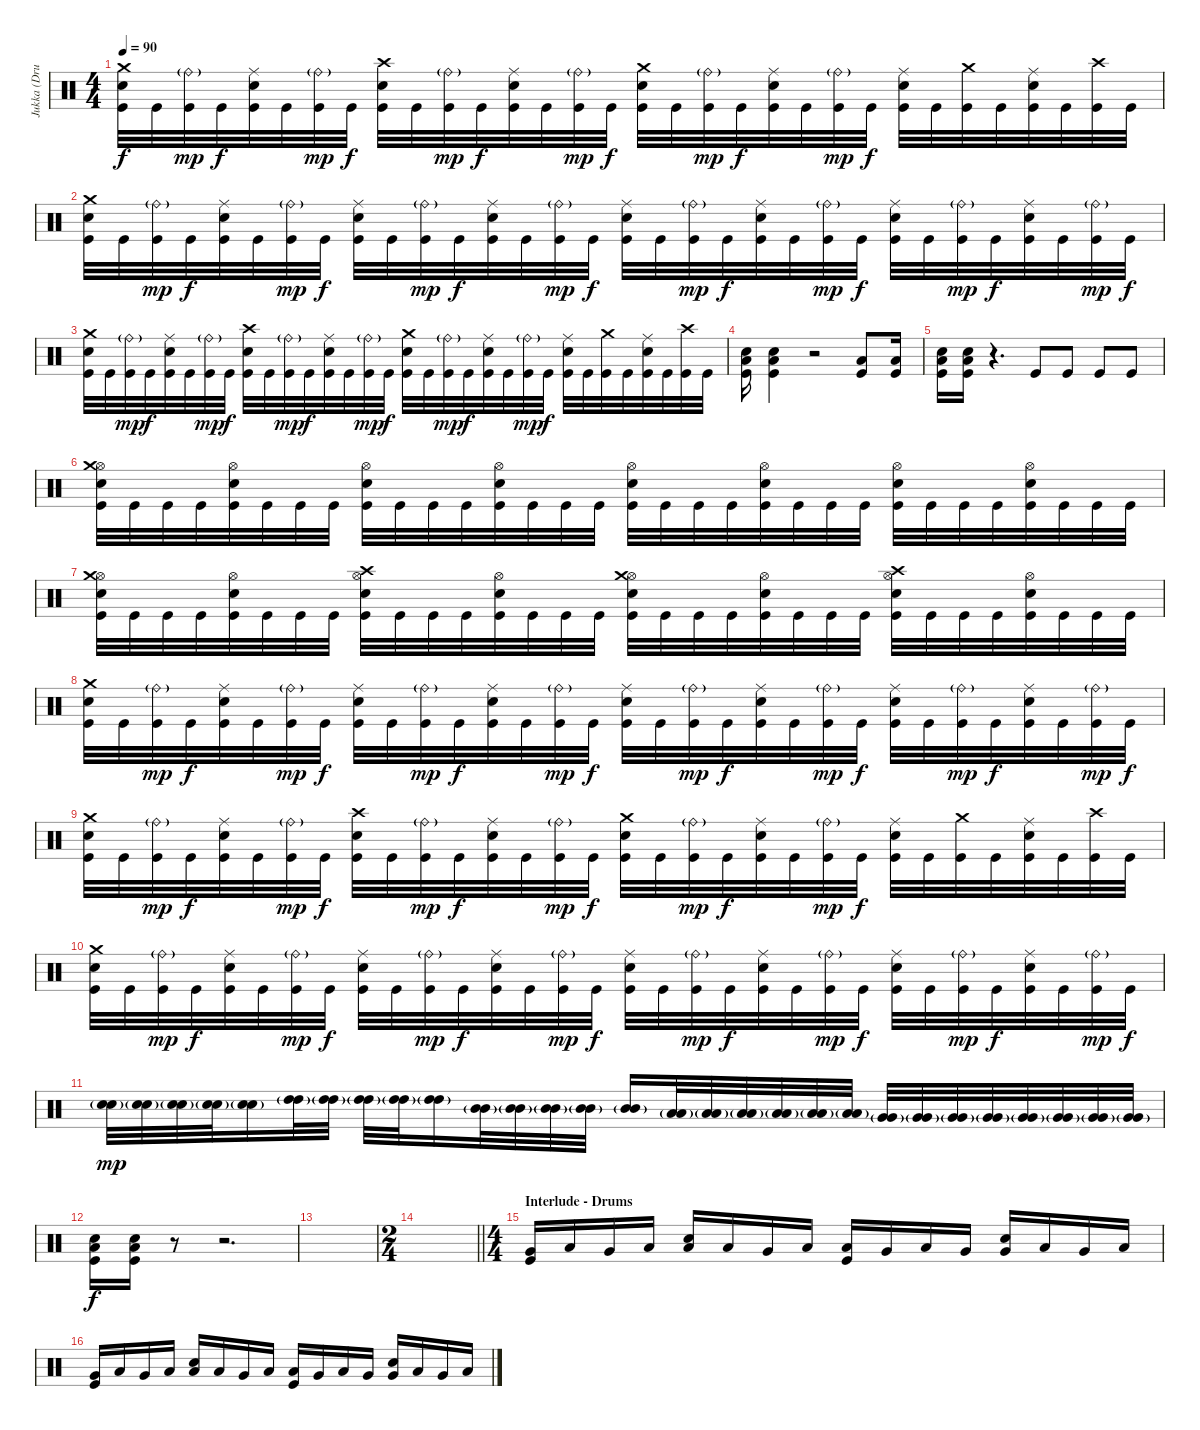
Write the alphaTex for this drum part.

\track ("Jukka (Drums)" "Jukka (Dru") {instrument percussion}
\staff {score}
\articulation defaults
\ts (4 4)
\tempo 90
\clef neutral
\ks c
("Crash medium (hit)" "Snare (hit) 2" "Kick (hit)").32{dy f} "Kick (hit)".32 ("Ride (bell)"{g} "Kick (hit)").32{dy mp} "Kick (hit)".32{dy f} ("Ride (middle)" "Snare (hit) 2" "Kick (hit)").32 "Kick (hit)".32 ("Ride (bell)"{g} "Kick (hit)").32{dy mp} "Kick (hit)".32{dy f} ("Crash high (hit)" "Snare (hit) 2" "Kick (hit)").32 "Kick (hit)".32 ("Ride (bell)"{g} "Kick (hit)").32{dy mp} "Kick (hit)".32{dy f} ("Ride (middle)" "Snare (hit) 2" "Kick (hit)").32 "Kick (hit)".32 ("Ride (bell)"{g} "Kick (hit)").32{dy mp} "Kick (hit)".32{dy f} ("Crash medium (hit)" "Snare (hit) 2" "Kick (hit)").32 "Kick (hit)".32 ("Ride (bell)"{g} "Kick (hit)").32{dy mp} "Kick (hit)".32{dy f} ("Ride (middle)" "Snare (hit) 2" "Kick (hit)").32 "Kick (hit)".32 ("Ride (bell)"{g} "Kick (hit)").32{dy mp} "Kick (hit)".32{dy f} ("Ride (middle)" "Snare (hit) 2" "Kick (hit)").32 "Kick (hit)".32 ("Crash medium (hit)" "Kick (hit)").32 "Kick (hit)".32 ("Ride (middle)" "Snare (hit) 2" "Kick (hit)").32 "Kick (hit)".32 ("Crash high (hit)" "Kick (hit)").32 "Kick (hit)".32 |
("Crash medium (hit)" "Snare (hit) 2" "Kick (hit)").32 "Kick (hit)".32 ("Ride (bell)"{g} "Kick (hit)").32{dy mp} "Kick (hit)".32{dy f} ("Ride (middle)" "Snare (hit) 2" "Kick (hit)").32 "Kick (hit)".32 ("Ride (bell)"{g} "Kick (hit)").32{dy mp} "Kick (hit)".32{dy f} ("Ride (middle)" "Snare (hit) 2" "Kick (hit)").32 "Kick (hit)".32 ("Ride (bell)"{g} "Kick (hit)").32{dy mp} "Kick (hit)".32{dy f} ("Ride (middle)" "Snare (hit) 2" "Kick (hit)").32 "Kick (hit)".32 ("Ride (bell)"{g} "Kick (hit)").32{dy mp} "Kick (hit)".32{dy f} ("Ride (middle)" "Snare (hit) 2" "Kick (hit)").32 "Kick (hit)".32 ("Ride (bell)"{g} "Kick (hit)").32{dy mp} "Kick (hit)".32{dy f} ("Ride (middle)" "Snare (hit) 2" "Kick (hit)").32 "Kick (hit)".32 ("Ride (bell)"{g} "Kick (hit)").32{dy mp} "Kick (hit)".32{dy f} ("Ride (middle)" "Snare (hit) 2" "Kick (hit)").32 "Kick (hit)".32 ("Ride (bell)"{g} "Kick (hit)").32{dy mp} "Kick (hit)".32{dy f} ("Ride (middle)" "Snare (hit) 2" "Kick (hit)").32 "Kick (hit)".32 ("Ride (bell)"{g} "Kick (hit)").32{dy mp} "Kick (hit)".32{dy f} |
("Crash medium (hit)" "Snare (hit) 2" "Kick (hit)").32 "Kick (hit)".32 ("Ride (bell)"{g} "Kick (hit)").32{dy mp} "Kick (hit)".32{dy f} ("Ride (middle)" "Snare (hit) 2" "Kick (hit)").32 "Kick (hit)".32 ("Ride (bell)"{g} "Kick (hit)").32{dy mp} "Kick (hit)".32{dy f} ("Crash high (hit)" "Snare (hit) 2" "Kick (hit)").32 "Kick (hit)".32 ("Ride (bell)"{g} "Kick (hit)").32{dy mp} "Kick (hit)".32{dy f} ("Ride (middle)" "Snare (hit) 2" "Kick (hit)").32 "Kick (hit)".32 ("Ride (bell)"{g} "Kick (hit)").32{dy mp} "Kick (hit)".32{dy f} ("Crash medium (hit)" "Snare (hit) 2" "Kick (hit)").32 "Kick (hit)".32 ("Ride (bell)"{g} "Kick (hit)").32{dy mp} "Kick (hit)".32{dy f} ("Ride (middle)" "Snare (hit) 2" "Kick (hit)").32 "Kick (hit)".32 ("Ride (bell)"{g} "Kick (hit)").32{dy mp} "Kick (hit)".32{dy f} ("Ride (middle)" "Snare (hit) 2" "Kick (hit)").32 "Kick (hit)".32 ("Crash medium (hit)" "Kick (hit)").32 "Kick (hit)".32 ("Ride (middle)" "Snare (hit) 2" "Kick (hit)").32 "Kick (hit)".32 ("Crash high (hit)" "Kick (hit)").32 "Kick (hit)".32 |
("Snare (hit) 2" "Low Floor Tom (hit)" "Kick (hit)").16{volume 12} ("Snare (hit) 2" "Low Floor Tom (hit)" "Kick (hit)").4 r.2 ("Low Floor Tom (hit)" "Kick (hit)").8 ("Low Floor Tom (hit)" "Kick (hit)").16 |
("Snare (hit) 2" "Low Floor Tom (hit)" "Kick (hit)").16 ("Snare (hit) 2" "Low Floor Tom (hit)" "Kick (hit)").16 r.4{d} "Kick (hit)".8{volume 16} "Kick (hit)".8 "Kick (hit)".8 "Kick (hit)".8 |
("Hi-Hat (open)" "Crash medium (hit)" "Snare (hit) 2" "Kick (hit)").32 "Kick (hit)".32 "Kick (hit)".32 "Kick (hit)".32 ("Hi-Hat (open)" "Snare (hit) 2" "Kick (hit)").32 "Kick (hit)".32 "Kick (hit)".32 "Kick (hit)".32 ("Hi-Hat (open)" "Snare (hit) 2" "Kick (hit)").32 "Kick (hit)".32 "Kick (hit)".32 "Kick (hit)".32 ("Hi-Hat (open)" "Snare (hit) 2" "Kick (hit)").32 "Kick (hit)".32 "Kick (hit)".32 "Kick (hit)".32 ("Hi-Hat (open)" "Snare (hit) 2" "Kick (hit)").32 "Kick (hit)".32 "Kick (hit)".32 "Kick (hit)".32 ("Hi-Hat (open)" "Snare (hit) 2" "Kick (hit)").32 "Kick (hit)".32 "Kick (hit)".32 "Kick (hit)".32 ("Hi-Hat (open)" "Snare (hit) 2" "Kick (hit)").32 "Kick (hit)".32 "Kick (hit)".32 "Kick (hit)".32 ("Hi-Hat (open)" "Snare (hit) 2" "Kick (hit)").32 "Kick (hit)".32 "Kick (hit)".32 "Kick (hit)".32 |
("Hi-Hat (open)" "Crash medium (hit)" "Snare (hit) 2" "Kick (hit)").32 "Kick (hit)".32 "Kick (hit)".32 "Kick (hit)".32 ("Hi-Hat (open)" "Snare (hit) 2" "Kick (hit)").32 "Kick (hit)".32 "Kick (hit)".32 "Kick (hit)".32 ("Hi-Hat (open)" "Crash high (hit)" "Snare (hit) 2" "Kick (hit)").32 "Kick (hit)".32 "Kick (hit)".32 "Kick (hit)".32 ("Hi-Hat (open)" "Snare (hit) 2" "Kick (hit)").32 "Kick (hit)".32 "Kick (hit)".32 "Kick (hit)".32 ("Hi-Hat (open)" "Crash medium (hit)" "Snare (hit) 2" "Kick (hit)").32 "Kick (hit)".32 "Kick (hit)".32 "Kick (hit)".32 ("Hi-Hat (open)" "Snare (hit) 2" "Kick (hit)").32 "Kick (hit)".32 "Kick (hit)".32 "Kick (hit)".32 ("Hi-Hat (open)" "Crash high (hit)" "Snare (hit) 2" "Kick (hit)").32 "Kick (hit)".32 "Kick (hit)".32 "Kick (hit)".32 ("Hi-Hat (open)" "Snare (hit) 2" "Kick (hit)").32 "Kick (hit)".32 "Kick (hit)".32 "Kick (hit)".32 |
("Crash medium (hit)" "Snare (hit) 2" "Kick (hit)").32 "Kick (hit)".32 ("Ride (bell)"{g} "Kick (hit)").32{dy mp} "Kick (hit)".32{dy f} ("Ride (middle)" "Snare (hit) 2" "Kick (hit)").32 "Kick (hit)".32 ("Ride (bell)"{g} "Kick (hit)").32{dy mp} "Kick (hit)".32{dy f} ("Ride (middle)" "Snare (hit) 2" "Kick (hit)").32 "Kick (hit)".32 ("Ride (bell)"{g} "Kick (hit)").32{dy mp} "Kick (hit)".32{dy f} ("Ride (middle)" "Snare (hit) 2" "Kick (hit)").32 "Kick (hit)".32 ("Ride (bell)"{g} "Kick (hit)").32{dy mp} "Kick (hit)".32{dy f} ("Ride (middle)" "Snare (hit) 2" "Kick (hit)").32 "Kick (hit)".32 ("Ride (bell)"{g} "Kick (hit)").32{dy mp} "Kick (hit)".32{dy f} ("Ride (middle)" "Snare (hit) 2" "Kick (hit)").32 "Kick (hit)".32 ("Ride (bell)"{g} "Kick (hit)").32{dy mp} "Kick (hit)".32{dy f} ("Ride (middle)" "Snare (hit) 2" "Kick (hit)").32 "Kick (hit)".32 ("Ride (bell)"{g} "Kick (hit)").32{dy mp} "Kick (hit)".32{dy f} ("Ride (middle)" "Snare (hit) 2" "Kick (hit)").32 "Kick (hit)".32 ("Ride (bell)"{g} "Kick (hit)").32{dy mp} "Kick (hit)".32{dy f} |
("Crash medium (hit)" "Snare (hit) 2" "Kick (hit)").32 "Kick (hit)".32 ("Ride (bell)"{g} "Kick (hit)").32{dy mp} "Kick (hit)".32{dy f} ("Ride (middle)" "Snare (hit) 2" "Kick (hit)").32 "Kick (hit)".32 ("Ride (bell)"{g} "Kick (hit)").32{dy mp} "Kick (hit)".32{dy f} ("Crash high (hit)" "Snare (hit) 2" "Kick (hit)").32 "Kick (hit)".32 ("Ride (bell)"{g} "Kick (hit)").32{dy mp} "Kick (hit)".32{dy f} ("Ride (middle)" "Snare (hit) 2" "Kick (hit)").32 "Kick (hit)".32 ("Ride (bell)"{g} "Kick (hit)").32{dy mp} "Kick (hit)".32{dy f} ("Crash medium (hit)" "Snare (hit) 2" "Kick (hit)").32 "Kick (hit)".32 ("Ride (bell)"{g} "Kick (hit)").32{dy mp} "Kick (hit)".32{dy f} ("Ride (middle)" "Snare (hit) 2" "Kick (hit)").32 "Kick (hit)".32 ("Ride (bell)"{g} "Kick (hit)").32{dy mp} "Kick (hit)".32{dy f} ("Ride (middle)" "Snare (hit) 2" "Kick (hit)").32 "Kick (hit)".32 ("Crash medium (hit)" "Kick (hit)").32 "Kick (hit)".32 ("Ride (middle)" "Snare (hit) 2" "Kick (hit)").32 "Kick (hit)".32 ("Crash high (hit)" "Kick (hit)").32 "Kick (hit)".32 |
("Crash medium (hit)" "Snare (hit) 2" "Kick (hit)").32 "Kick (hit)".32 ("Ride (bell)"{g} "Kick (hit)").32{dy mp} "Kick (hit)".32{dy f} ("Ride (middle)" "Snare (hit) 2" "Kick (hit)").32 "Kick (hit)".32 ("Ride (bell)"{g} "Kick (hit)").32{dy mp} "Kick (hit)".32{dy f} ("Ride (middle)" "Snare (hit) 2" "Kick (hit)").32 "Kick (hit)".32 ("Ride (bell)"{g} "Kick (hit)").32{dy mp} "Kick (hit)".32{dy f} ("Ride (middle)" "Snare (hit) 2" "Kick (hit)").32 "Kick (hit)".32 ("Ride (bell)"{g} "Kick (hit)").32{dy mp} "Kick (hit)".32{dy f} ("Ride (middle)" "Snare (hit) 2" "Kick (hit)").32 "Kick (hit)".32 ("Ride (bell)"{g} "Kick (hit)").32{dy mp} "Kick (hit)".32{dy f} ("Ride (middle)" "Snare (hit) 2" "Kick (hit)").32 "Kick (hit)".32 ("Ride (bell)"{g} "Kick (hit)").32{dy mp} "Kick (hit)".32{dy f} ("Ride (middle)" "Snare (hit) 2" "Kick (hit)").32 "Kick (hit)".32 ("Ride (bell)"{g} "Kick (hit)").32{dy mp} "Kick (hit)".32{dy f} ("Ride (middle)" "Snare (hit) 2" "Kick (hit)").32 "Kick (hit)".32 ("Ride (bell)"{g} "Kick (hit)").32{dy mp} "Kick (hit)".32{dy f} |
("Snare (hit) 2" "Snare (hit) 2"{g}).32{dy mp} ("Snare (hit) 2" "Snare (hit) 2"{g}).32 ("Snare (hit) 2" "Snare (hit) 2"{g}).32 ("Snare (hit) 2" "Snare (hit) 2"{g}).32 ("Snare (hit) 2" "Snare (hit) 2"{g}).16 ("High Tom (hit)" "High Tom (hit)"{g}).32 ("High Tom (hit)" "High Tom (hit)"{g}).32 ("High Tom (hit)" "High Tom (hit)"{g}).32 ("High Tom (hit)" "High Tom (hit)"{g}).32 ("High Tom (hit)" "High Tom (hit)"{g}).16 ("Mid Tom (hit)" "Mid Tom (hit)"{g}).32 ("Mid Tom (hit)" "Mid Tom (hit)"{g}).32 ("Mid Tom (hit)" "Mid Tom (hit)"{g}).32 ("Mid Tom (hit)" "Mid Tom (hit)"{g}).32 ("Mid Tom (hit)" "Mid Tom (hit)"{g}).16 ("Low Tom (hit)" "Low Tom (hit)"{g}).32 ("Low Tom (hit)" "Low Tom (hit)"{g}).32 ("Low Tom (hit)" "Low Tom (hit)"{g}).32 ("Low Tom (hit)" "Low Tom (hit)"{g}).32 ("Low Tom (hit)" "Low Tom (hit)"{g}).32 ("Low Tom (hit)" "Low Tom (hit)"{g}).32 ("Very Low Tom (hit)" "Very Low Tom (hit)"{g}).32 ("Very Low Tom (hit)" "Very Low Tom (hit)"{g}).32 ("Very Low Tom (hit)" "Very Low Tom (hit)"{g}).32 ("Very Low Tom (hit)" "Very Low Tom (hit)"{g}).32 ("Very Low Tom (hit)" "Very Low Tom (hit)"{g}).32 ("Very Low Tom (hit)" "Very Low Tom (hit)"{g}).32 ("Very Low Tom (hit)" "Very Low Tom (hit)"{g}).32 ("Very Low Tom (hit)" "Very Low Tom (hit)"{g}).32 |
("Snare (hit) 2" "Low Floor Tom (hit)" "Kick (hit)").16{dy f} ("Snare (hit) 2" "Low Floor Tom (hit)" "Kick (hit)").16 r.8 r.2{d} |
|
\ts (2 4)
\barLineRight lightlight
|
\ts (4 4)
\section ("" "Interlude - Drums")
("Very Low Tom (hit)" "Kick (hit)").16 "Low Floor Tom (hit)".16 "Very Low Tom (hit)".16 "Low Floor Tom (hit)".16 ("Low Tom (hit)" "Snare (hit) 2").16 "Low Floor Tom (hit)".16 "Very Low Tom (hit)".16 "Low Floor Tom (hit)".16 ("Low Tom (hit)" "Kick (hit)").16 "Very Low Tom (hit)".16 "Low Floor Tom (hit)".16 "Very Low Tom (hit)".16 ("Very Low Tom (hit)" "Snare (hit) 2").16 "Low Tom (hit)".16 "Very Low Tom (hit)".16 "Low Floor Tom (hit)".16 |
("Very Low Tom (hit)" "Kick (hit)").16 "Low Floor Tom (hit)".16 "Very Low Tom (hit)".16 "Low Floor Tom (hit)".16 ("Low Tom (hit)" "Snare (hit) 2").16 "Low Floor Tom (hit)".16 "Very Low Tom (hit)".16 "Low Floor Tom (hit)".16 ("Low Tom (hit)" "Kick (hit)").16 "Very Low Tom (hit)".16 "Low Floor Tom (hit)".16 "Very Low Tom (hit)".16 ("Very Low Tom (hit)" "Snare (hit) 2").16 "Low Tom (hit)".16 "Very Low Tom (hit)".16 "Low Floor Tom (hit)".16
